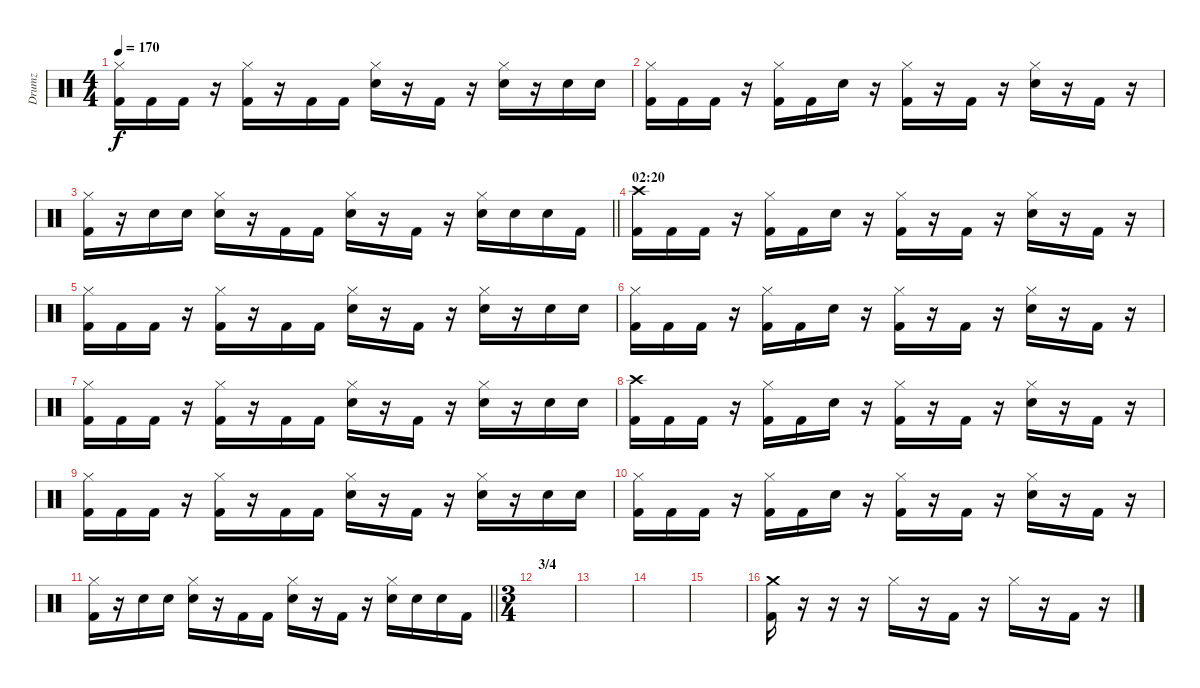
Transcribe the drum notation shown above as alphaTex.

\track ("Drumz" "Drumz") {instrument percussion}
\staff {score}
\articulation defaults
\ts (4 4)
\tempo 170
\clef neutral
\ks c
("Hi-Hat (closed)" "Kick (hit) 2").16{dy f} "Kick (hit) 2".16 "Kick (hit) 2".16 r.16 ("Hi-Hat (closed)" "Kick (hit) 2").16 r.16 "Kick (hit) 2".16 "Kick (hit) 2".16 ("Hi-Hat (closed)" "Electric Snare (hit)").16 r.16 "Kick (hit) 2".16 r.16 ("Hi-Hat (closed)" "Electric Snare (hit)").16 r.16 "Electric Snare (hit)".16 "Electric Snare (hit)".16 |
("Hi-Hat (closed)" "Kick (hit) 2").16 "Kick (hit) 2".16 "Kick (hit) 2".16 r.16 ("Hi-Hat (closed)" "Kick (hit) 2").16 "Kick (hit) 2".16 "Electric Snare (hit)".16 r.16 ("Hi-Hat (closed)" "Kick (hit) 2").16 r.16 "Kick (hit) 2".16 r.16 ("Hi-Hat (closed)" "Electric Snare (hit)").16 r.16 "Kick (hit) 2".16 r.16 |
\barLineRight lightlight
("Hi-Hat (closed)" "Kick (hit) 2").16 r.16 "Electric Snare (hit)".16 "Electric Snare (hit)".16 ("Hi-Hat (closed)" "Electric Snare (hit)").16 r.16 "Kick (hit) 2".16 "Kick (hit) 2".16 ("Hi-Hat (closed)" "Electric Snare (hit)").16 r.16 "Kick (hit) 2".16 r.16 ("Hi-Hat (closed)" "Electric Snare (hit)").16 "Electric Snare (hit)".16 "Electric Snare (hit)".16 "Kick (hit) 2".16 |
\section ("" "02:20")
("Crash high (hit)" "Kick (hit) 2").16 "Kick (hit) 2".16 "Kick (hit) 2".16 r.16 ("Hi-Hat (closed)" "Kick (hit) 2").16 "Kick (hit) 2".16 "Electric Snare (hit)".16 r.16 ("Hi-Hat (closed)" "Kick (hit) 2").16 r.16 "Kick (hit) 2".16 r.16 ("Hi-Hat (closed)" "Electric Snare (hit)").16 r.16 "Kick (hit) 2".16 r.16 |
("Hi-Hat (closed)" "Kick (hit) 2").16 "Kick (hit) 2".16 "Kick (hit) 2".16 r.16 ("Hi-Hat (closed)" "Kick (hit) 2").16 r.16 "Kick (hit) 2".16 "Kick (hit) 2".16 ("Hi-Hat (closed)" "Electric Snare (hit)").16 r.16 "Kick (hit) 2".16 r.16 ("Hi-Hat (closed)" "Electric Snare (hit)").16 r.16 "Electric Snare (hit)".16 "Electric Snare (hit)".16 |
("Hi-Hat (closed)" "Kick (hit) 2").16 "Kick (hit) 2".16 "Kick (hit) 2".16 r.16 ("Hi-Hat (closed)" "Kick (hit) 2").16 "Kick (hit) 2".16 "Electric Snare (hit)".16 r.16 ("Hi-Hat (closed)" "Kick (hit) 2").16 r.16 "Kick (hit) 2".16 r.16 ("Hi-Hat (closed)" "Electric Snare (hit)").16 r.16 "Kick (hit) 2".16 r.16 |
("Hi-Hat (closed)" "Kick (hit) 2").16 "Kick (hit) 2".16 "Kick (hit) 2".16 r.16 ("Hi-Hat (closed)" "Kick (hit) 2").16 r.16 "Kick (hit) 2".16 "Kick (hit) 2".16 ("Hi-Hat (closed)" "Electric Snare (hit)").16 r.16 "Kick (hit) 2".16 r.16 ("Hi-Hat (closed)" "Electric Snare (hit)").16 r.16 "Electric Snare (hit)".16 "Electric Snare (hit)".16 |
("Crash high (hit)" "Kick (hit) 2").16 "Kick (hit) 2".16 "Kick (hit) 2".16 r.16 ("Hi-Hat (closed)" "Kick (hit) 2").16 "Kick (hit) 2".16 "Electric Snare (hit)".16 r.16 ("Hi-Hat (closed)" "Kick (hit) 2").16 r.16 "Kick (hit) 2".16 r.16 ("Hi-Hat (closed)" "Electric Snare (hit)").16 r.16 "Kick (hit) 2".16 r.16 |
("Hi-Hat (closed)" "Kick (hit) 2").16 "Kick (hit) 2".16 "Kick (hit) 2".16 r.16 ("Hi-Hat (closed)" "Kick (hit) 2").16 r.16 "Kick (hit) 2".16 "Kick (hit) 2".16 ("Hi-Hat (closed)" "Electric Snare (hit)").16 r.16 "Kick (hit) 2".16 r.16 ("Hi-Hat (closed)" "Electric Snare (hit)").16 r.16 "Electric Snare (hit)".16 "Electric Snare (hit)".16 |
("Hi-Hat (closed)" "Kick (hit) 2").16 "Kick (hit) 2".16 "Kick (hit) 2".16 r.16 ("Hi-Hat (closed)" "Kick (hit) 2").16 "Kick (hit) 2".16 "Electric Snare (hit)".16 r.16 ("Hi-Hat (closed)" "Kick (hit) 2").16 r.16 "Kick (hit) 2".16 r.16 ("Hi-Hat (closed)" "Electric Snare (hit)").16 r.16 "Kick (hit) 2".16 r.16 |
\barLineRight lightlight
("Hi-Hat (closed)" "Kick (hit) 2").16 r.16 "Electric Snare (hit)".16 "Electric Snare (hit)".16 ("Hi-Hat (closed)" "Electric Snare (hit)").16 r.16 "Kick (hit) 2".16 "Kick (hit) 2".16 ("Hi-Hat (closed)" "Electric Snare (hit)").16 r.16 "Kick (hit) 2".16 r.16 ("Hi-Hat (closed)" "Electric Snare (hit)").16 "Electric Snare (hit)".16 "Electric Snare (hit)".16 "Kick (hit) 2".16 |
\ts (3 4)
\section ("" "3/4")
|
|
|
|
("Crash medium (hit)" "Kick (hit) 2").16 r.16 r.16 r.16 "Hi-Hat (closed)".16 r.16 "Kick (hit) 2".16 r.16 "Hi-Hat (closed)".16 r.16 "Kick (hit) 2".16 r.16
